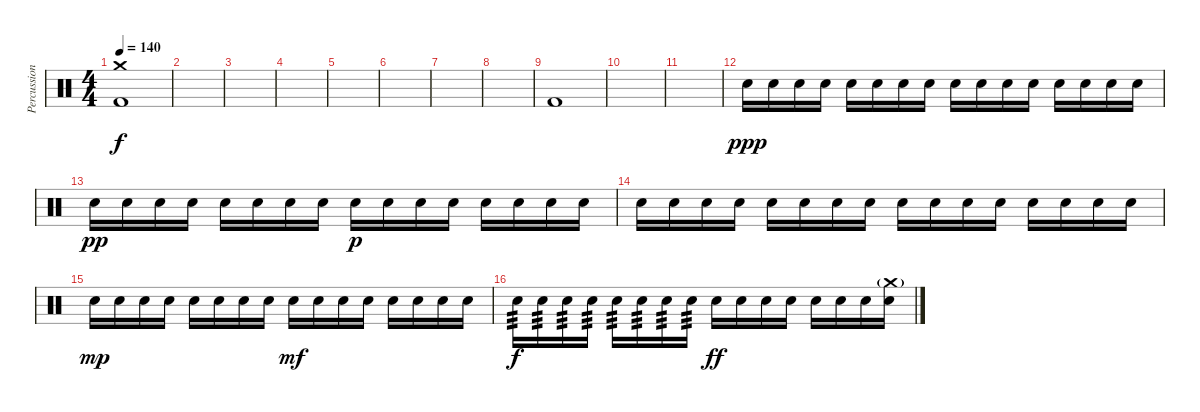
\track ("Percussion" "Percussion") {instrument percussion}
\staff {score}
\articulation defaults
\ts (4 4)
\tempo 140
\clef neutral
\ks c
("Crash medium (hit)" "Kick (hit) 2").1{dy f} |
|
|
|
|
|
|
|
"Kick (hit) 2".1 |
|
|
"Snare (hit) 2".16{dy ppp} "Snare (hit) 2".16 "Snare (hit) 2".16 "Snare (hit) 2".16 "Snare (hit) 2".16 "Snare (hit) 2".16 "Snare (hit) 2".16 "Snare (hit) 2".16 "Snare (hit) 2".16 "Snare (hit) 2".16 "Snare (hit) 2".16 "Snare (hit) 2".16 "Snare (hit) 2".16 "Snare (hit) 2".16 "Snare (hit) 2".16 "Snare (hit) 2".16 |
"Snare (hit) 2".16{dy pp} "Snare (hit) 2".16 "Snare (hit) 2".16 "Snare (hit) 2".16 "Snare (hit) 2".16 "Snare (hit) 2".16 "Snare (hit) 2".16 "Snare (hit) 2".16 "Snare (hit) 2".16{dy p} "Snare (hit) 2".16 "Snare (hit) 2".16 "Snare (hit) 2".16 "Snare (hit) 2".16 "Snare (hit) 2".16 "Snare (hit) 2".16 "Snare (hit) 2".16 |
"Snare (hit) 2".16 "Snare (hit) 2".16 "Snare (hit) 2".16 "Snare (hit) 2".16 "Snare (hit) 2".16 "Snare (hit) 2".16 "Snare (hit) 2".16 "Snare (hit) 2".16 "Snare (hit) 2".16 "Snare (hit) 2".16 "Snare (hit) 2".16 "Snare (hit) 2".16 "Snare (hit) 2".16 "Snare (hit) 2".16 "Snare (hit) 2".16 "Snare (hit) 2".16 |
"Snare (hit) 2".16{dy mp} "Snare (hit) 2".16 "Snare (hit) 2".16 "Snare (hit) 2".16 "Snare (hit) 2".16 "Snare (hit) 2".16 "Snare (hit) 2".16 "Snare (hit) 2".16 "Snare (hit) 2".16{dy mf} "Snare (hit) 2".16 "Snare (hit) 2".16 "Snare (hit) 2".16 "Snare (hit) 2".16 "Snare (hit) 2".16 "Snare (hit) 2".16 "Snare (hit) 2".16 |
"Snare (hit) 2".16{tp 3 dy f} "Snare (hit) 2".16{tp 3} "Snare (hit) 2".16{tp 3} "Snare (hit) 2".16{tp 3} "Snare (hit) 2".16{tp 3} "Snare (hit) 2".16{tp 3} "Snare (hit) 2".16{tp 3} "Snare (hit) 2".16{tp 3} "Snare (hit) 2".16{dy ff} "Snare (hit) 2".16 "Snare (hit) 2".16 "Snare (hit) 2".16 "Snare (hit) 2".16 "Snare (hit) 2".16 "Snare (hit) 2".16 ("Crash medium (hit)"{g} "Snare (hit) 2").16
